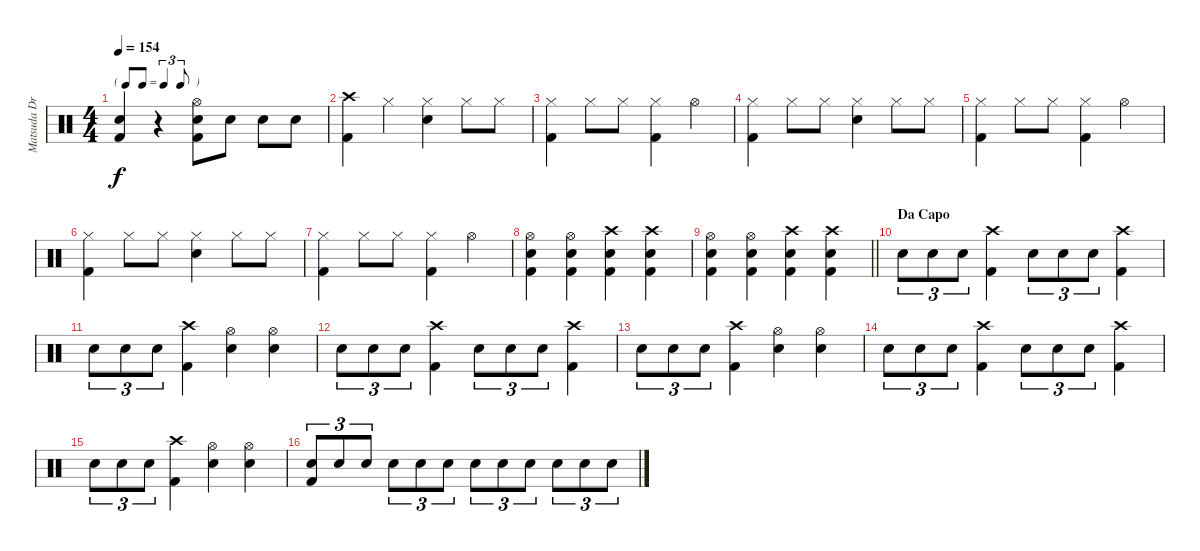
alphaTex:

\track ("Matsuda Drums" "Matsuda Dr") {instrument percussion}
\staff {score}
\articulation defaults
\ts (4 4)
\tf triplet8th
\tempo 154
\clef neutral
\ks c
("Snare (hit) 2" "Kick (hit) 2").4{dy f} r.4 ("Hi-Hat (open)" "Snare (hit) 2" "Kick (hit) 2").8 "Snare (hit) 2".8 "Snare (hit) 2".8 "Snare (hit) 2".8 |
("Crash high (hit)" "Kick (hit) 2").4 "Hi-Hat (closed)".4 ("Hi-Hat (closed)" "Snare (hit) 2").4 "Hi-Hat (closed)".8 "Hi-Hat (closed)".8 |
("Hi-Hat (closed)" "Kick (hit) 2").4 "Hi-Hat (closed)".8 "Hi-Hat (closed)".8 ("Hi-Hat (closed)" "Kick (hit) 2").4 "Hi-Hat (open)".4 |
("Hi-Hat (closed)" "Kick (hit) 2").4 "Hi-Hat (closed)".8 "Hi-Hat (closed)".8 ("Hi-Hat (closed)" "Snare (hit) 2").4 "Hi-Hat (closed)".8 "Hi-Hat (closed)".8 |
("Hi-Hat (closed)" "Kick (hit) 2").4 "Hi-Hat (closed)".8 "Hi-Hat (closed)".8 ("Hi-Hat (closed)" "Kick (hit) 2").4 "Hi-Hat (open)".4 |
("Hi-Hat (closed)" "Kick (hit) 2").4 "Hi-Hat (closed)".8 "Hi-Hat (closed)".8 ("Hi-Hat (closed)" "Snare (hit) 2").4 "Hi-Hat (closed)".8 "Hi-Hat (closed)".8 |
("Hi-Hat (closed)" "Kick (hit) 2").4 "Hi-Hat (closed)".8 "Hi-Hat (closed)".8 ("Hi-Hat (closed)" "Kick (hit) 2").4 "Hi-Hat (open)".4 |
("Hi-Hat (open)" "Snare (hit) 2" "Kick (hit) 2").4 ("Hi-Hat (open)" "Snare (hit) 2" "Kick (hit) 2").4 ("Crash high (hit)" "Snare (hit) 2" "Kick (hit) 2").4 ("Crash high (hit)" "Snare (hit) 2" "Kick (hit) 2").4 |
\barLineRight lightlight
("Hi-Hat (open)" "Snare (hit) 2" "Kick (hit) 2").4 ("Hi-Hat (open)" "Snare (hit) 2" "Kick (hit) 2").4 ("Crash high (hit)" "Snare (hit) 2" "Kick (hit) 2").4 ("Crash high (hit)" "Snare (hit) 2" "Kick (hit) 2").4 |
\section ("" "Da Capo")
"Snare (hit) 2".8{tu (3 2)} "Snare (hit) 2".8{tu (3 2)} "Snare (hit) 2".8{tu (3 2)} ("Crash high (hit)" "Kick (hit) 2").4 "Snare (hit) 2".8{tu (3 2)} "Snare (hit) 2".8{tu (3 2)} "Snare (hit) 2".8{tu (3 2)} ("Crash high (hit)" "Kick (hit) 2").4 |
"Snare (hit) 2".8{tu (3 2)} "Snare (hit) 2".8{tu (3 2)} "Snare (hit) 2".8{tu (3 2)} ("Crash high (hit)" "Kick (hit) 2").4 ("Hi-Hat (open)" "Snare (hit) 2").4 ("Hi-Hat (open)" "Snare (hit) 2").4 |
"Snare (hit) 2".8{tu (3 2)} "Snare (hit) 2".8{tu (3 2)} "Snare (hit) 2".8{tu (3 2)} ("Crash high (hit)" "Kick (hit) 2").4 "Snare (hit) 2".8{tu (3 2)} "Snare (hit) 2".8{tu (3 2)} "Snare (hit) 2".8{tu (3 2)} ("Crash high (hit)" "Kick (hit) 2").4 |
"Snare (hit) 2".8{tu (3 2)} "Snare (hit) 2".8{tu (3 2)} "Snare (hit) 2".8{tu (3 2)} ("Crash high (hit)" "Kick (hit) 2").4 ("Hi-Hat (open)" "Snare (hit) 2").4 ("Hi-Hat (open)" "Snare (hit) 2").4 |
"Snare (hit) 2".8{tu (3 2)} "Snare (hit) 2".8{tu (3 2)} "Snare (hit) 2".8{tu (3 2)} ("Crash high (hit)" "Kick (hit) 2").4 "Snare (hit) 2".8{tu (3 2)} "Snare (hit) 2".8{tu (3 2)} "Snare (hit) 2".8{tu (3 2)} ("Crash high (hit)" "Kick (hit) 2").4 |
"Snare (hit) 2".8{tu (3 2)} "Snare (hit) 2".8{tu (3 2)} "Snare (hit) 2".8{tu (3 2)} ("Crash high (hit)" "Kick (hit) 2").4 ("Hi-Hat (open)" "Snare (hit) 2").4 ("Hi-Hat (open)" "Snare (hit) 2").4 |
("Snare (hit) 2" "Kick (hit) 2").8{tu (3 2)} "Snare (hit) 2".8{tu (3 2)} "Snare (hit) 2".8{tu (3 2)} "Snare (hit) 2".8{tu (3 2)} "Snare (hit) 2".8{tu (3 2)} "Snare (hit) 2".8{tu (3 2)} "Snare (hit) 2".8{tu (3 2)} "Snare (hit) 2".8{tu (3 2)} "Snare (hit) 2".8{tu (3 2)} "Snare (hit) 2".8{tu (3 2)} "Snare (hit) 2".8{tu (3 2)} "Snare (hit) 2".8{tu (3 2)}
